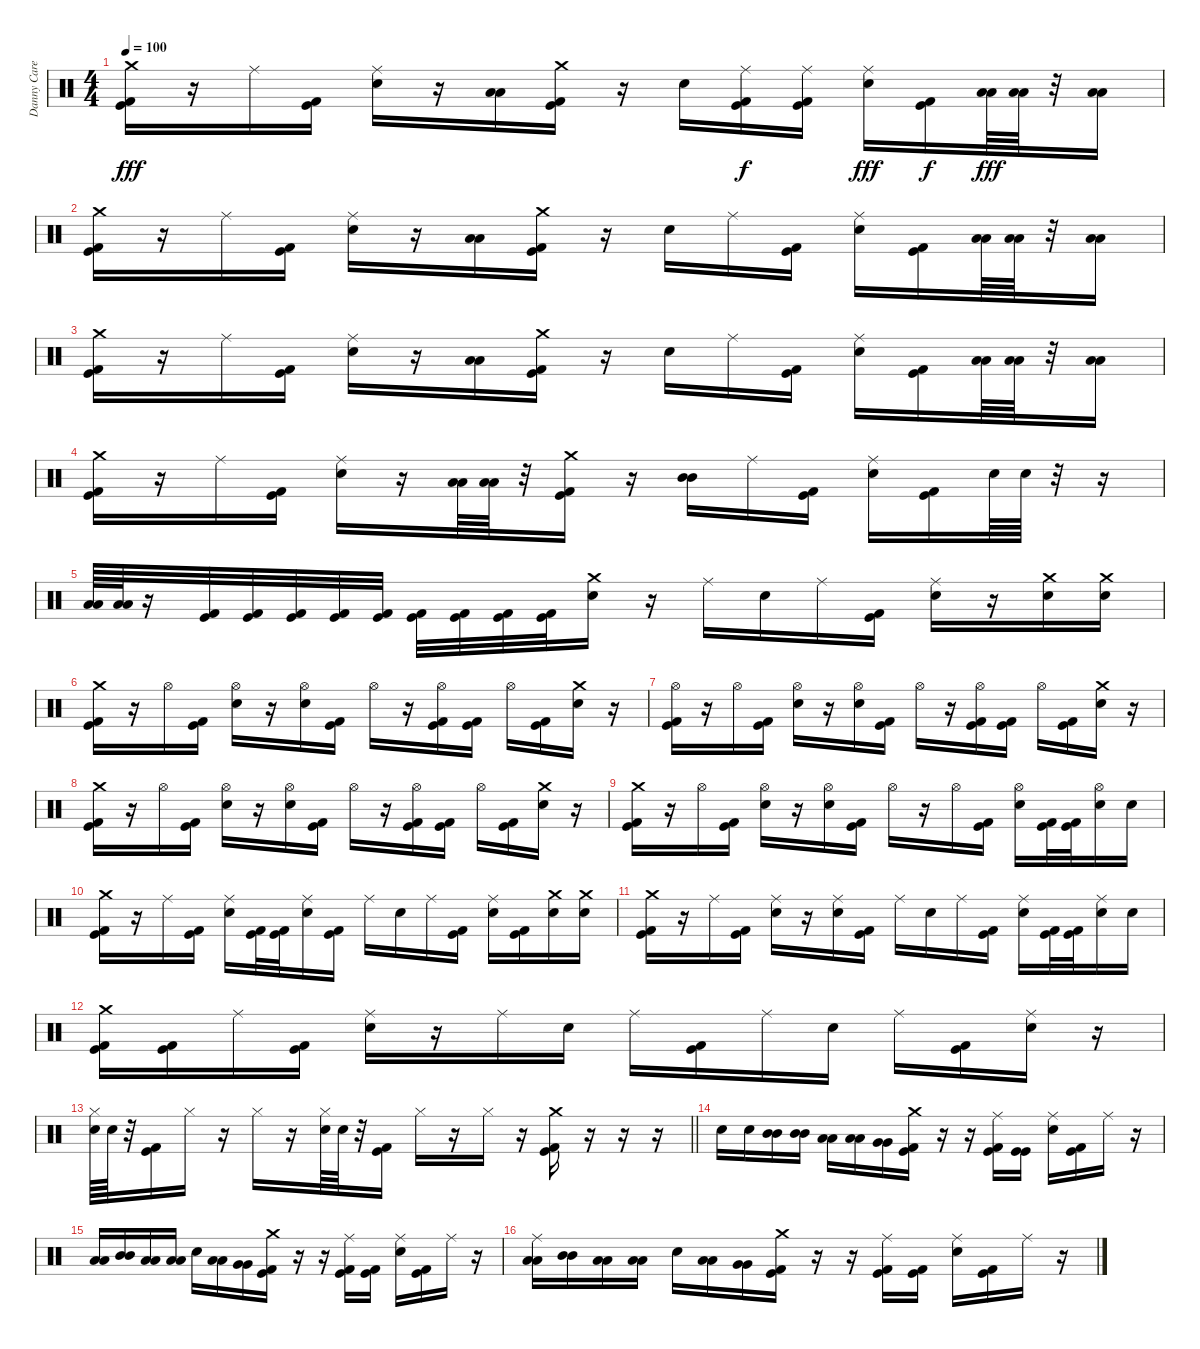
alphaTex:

\track ("Danny Carey" "Danny Care") {instrument percussion}
\staff {score}
\articulation defaults
\ts (4 4)
\tempo 100
\clef neutral
\ks c
("Crash medium (hit)" "Kick (hit)" "Kick (hit) 2").16{dy fff} r.16 "Ride (middle)".16 ("Kick (hit)" "Kick (hit) 2").16 ("Ride (middle)" "Electric Snare (hit)").16 r.16 ("Low Tom (hit)" "Low Tom (hit)").16 ("Crash medium (hit)" "Kick (hit)" "Kick (hit) 2").16 r.16 "Electric Snare (hit)".16 ("Ride (middle)" "Kick (hit)" "Kick (hit) 2").16{dy f} ("Ride (middle)" "Kick (hit)" "Kick (hit) 2").16 ("Ride (middle)" "Electric Snare (hit)").16{dy fff} ("Kick (hit)" "Kick (hit) 2").16{dy f} ("Low Tom (hit)" "Low Tom (hit)").64{dy fff} ("Low Tom (hit)" "Low Tom (hit)").64 r.32 ("Low Tom (hit)" "Low Tom (hit)").16 |
("Crash medium (hit)" "Kick (hit)" "Kick (hit) 2").16 r.16 "Ride (middle)".16 ("Kick (hit)" "Kick (hit) 2").16 ("Ride (middle)" "Electric Snare (hit)").16 r.16 ("Low Tom (hit)" "Low Tom (hit)").16 ("Crash medium (hit)" "Kick (hit)" "Kick (hit) 2").16 r.16 "Electric Snare (hit)".16 "Ride (middle)".16 ("Kick (hit)" "Kick (hit) 2").16 ("Ride (middle)" "Electric Snare (hit)").16 ("Kick (hit)" "Kick (hit) 2").16 ("Low Tom (hit)" "Low Tom (hit)").64 ("Low Tom (hit)" "Low Tom (hit)").64 r.32 ("Low Tom (hit)" "Low Tom (hit)").16 |
("Crash medium (hit)" "Kick (hit)" "Kick (hit) 2").16 r.16 "Ride (middle)".16 ("Kick (hit)" "Kick (hit) 2").16 ("Ride (middle)" "Electric Snare (hit)").16 r.16 ("Low Tom (hit)" "Low Tom (hit)").16 ("Crash medium (hit)" "Kick (hit)" "Kick (hit) 2").16 r.16 "Electric Snare (hit)".16 "Ride (middle)".16 ("Kick (hit)" "Kick (hit) 2").16 ("Ride (middle)" "Electric Snare (hit)").16 ("Kick (hit)" "Kick (hit) 2").16 ("Low Tom (hit)" "Low Tom (hit)").64 ("Low Tom (hit)" "Low Tom (hit)").64 r.32 ("Low Tom (hit)" "Low Tom (hit)").16 |
("Crash medium (hit)" "Kick (hit)" "Kick (hit) 2").16 r.16 "Ride (middle)".16 ("Kick (hit)" "Kick (hit) 2").16 ("Ride (middle)" "Electric Snare (hit)").16 r.16 ("Low Tom (hit)" "Low Tom (hit)").64 ("Low Tom (hit)" "Low Tom (hit)").64 r.32 ("Crash medium (hit)" "Kick (hit)" "Kick (hit) 2").16 r.16 ("Mid Tom (hit)" "Mid Tom (hit)").16 "Ride (middle)".16 ("Kick (hit)" "Kick (hit) 2").16 ("Ride (middle)" "Electric Snare (hit)").16 ("Kick (hit)" "Kick (hit) 2").16 "Electric Snare (hit)".64 "Electric Snare (hit)".64 r.32 r.16 |
("Low Tom (hit)" "Low Tom (hit)").64 ("Low Tom (hit)" "Low Tom (hit)").64 r.16 ("Kick (hit)" "Kick (hit) 2").32 ("Kick (hit)" "Kick (hit) 2").32 ("Kick (hit)" "Kick (hit) 2").32 ("Kick (hit)" "Kick (hit) 2").32 ("Kick (hit)" "Kick (hit) 2").32 ("Kick (hit)" "Kick (hit) 2").32 ("Kick (hit)" "Kick (hit) 2").32 ("Kick (hit)" "Kick (hit) 2").32 ("Kick (hit)" "Kick (hit) 2").32 ("Crash medium (hit)" "Electric Snare (hit)").16 r.16 "Ride (middle)".16 "Electric Snare (hit)".16 "Ride (middle)".16 ("Kick (hit)" "Kick (hit) 2").16 ("Ride (middle)" "Electric Snare (hit)").16 r.16 ("Crash medium (hit)" "Electric Snare (hit)").16 ("Crash medium (hit)" "Electric Snare (hit)").16 |
("Crash medium (hit)" "Kick (hit)" "Kick (hit) 2").16 r.16 "Hi-Hat (open)".16 ("Kick (hit)" "Kick (hit) 2").16 ("Hi-Hat (open)" "Electric Snare (hit)").16 r.16 ("Hi-Hat (open)" "Electric Snare (hit)").16 ("Kick (hit)" "Kick (hit) 2").16 "Hi-Hat (open)".16 r.16 ("Hi-Hat (open)" "Kick (hit)" "Kick (hit) 2").16 ("Kick (hit)" "Kick (hit) 2").16 "Hi-Hat (open)".16 ("Kick (hit)" "Kick (hit) 2").16 ("Crash medium (hit)" "Electric Snare (hit)").16 r.16 |
("Hi-Hat (open)" "Kick (hit)" "Kick (hit) 2").16 r.16 "Hi-Hat (open)".16 ("Kick (hit)" "Kick (hit) 2").16 ("Hi-Hat (open)" "Electric Snare (hit)").16 r.16 ("Hi-Hat (open)" "Electric Snare (hit)").16 ("Kick (hit)" "Kick (hit) 2").16 "Hi-Hat (open)".16 r.16 ("Hi-Hat (open)" "Kick (hit)" "Kick (hit) 2").16 ("Kick (hit)" "Kick (hit) 2").16 "Hi-Hat (open)".16 ("Kick (hit)" "Kick (hit) 2").16 ("Crash medium (hit)" "Electric Snare (hit)").16 r.16 |
("Crash medium (hit)" "Kick (hit)" "Kick (hit) 2").16 r.16 "Hi-Hat (open)".16 ("Kick (hit)" "Kick (hit) 2").16 ("Hi-Hat (open)" "Electric Snare (hit)").16 r.16 ("Hi-Hat (open)" "Electric Snare (hit)").16 ("Kick (hit)" "Kick (hit) 2").16 "Hi-Hat (open)".16 r.16 ("Hi-Hat (open)" "Kick (hit)" "Kick (hit) 2").16 ("Kick (hit)" "Kick (hit) 2").16 "Hi-Hat (open)".16 ("Kick (hit)" "Kick (hit) 2").16 ("Crash medium (hit)" "Electric Snare (hit)").16 r.16 |
("Crash medium (hit)" "Kick (hit)" "Kick (hit) 2").16 r.16 "Hi-Hat (open)".16 ("Kick (hit)" "Kick (hit) 2").16 ("Hi-Hat (open)" "Electric Snare (hit)").16 r.16 ("Hi-Hat (open)" "Electric Snare (hit)").16 ("Kick (hit)" "Kick (hit) 2").16 "Hi-Hat (open)".16 r.16 "Hi-Hat (open)".16 ("Kick (hit)" "Kick (hit) 2").16 ("Hi-Hat (open)" "Electric Snare (hit)").16 ("Kick (hit)" "Kick (hit) 2").32 ("Kick (hit)" "Kick (hit) 2").32 ("Hi-Hat (open)" "Electric Snare (hit)").16 "Electric Snare (hit)".16 |
("Crash medium (hit)" "Kick (hit)" "Kick (hit) 2").16 r.16 "Ride (middle)".16 ("Kick (hit)" "Kick (hit) 2").16 ("Ride (middle)" "Electric Snare (hit)").16 ("Kick (hit)" "Kick (hit) 2").32 ("Kick (hit)" "Kick (hit) 2").32 ("Ride (middle)" "Electric Snare (hit)").16 ("Kick (hit)" "Kick (hit) 2").16 "Ride (middle)".16 "Electric Snare (hit)".16 "Ride (middle)".16 ("Kick (hit)" "Kick (hit) 2").16 ("Ride (middle)" "Electric Snare (hit)").16 ("Kick (hit)" "Kick (hit) 2").16 ("Crash medium (hit)" "Electric Snare (hit)").16 ("Crash medium (hit)" "Electric Snare (hit)").16 |
("Crash medium (hit)" "Kick (hit)" "Kick (hit) 2").16 r.16 "Ride (middle)".16 ("Kick (hit)" "Kick (hit) 2").16 ("Ride (middle)" "Electric Snare (hit)").16 r.16 ("Ride (middle)" "Electric Snare (hit)").16 ("Kick (hit)" "Kick (hit) 2").16 "Ride (middle)".16 "Electric Snare (hit)".16 "Ride (middle)".16 ("Kick (hit)" "Kick (hit) 2").16 ("Ride (middle)" "Electric Snare (hit)").16 ("Kick (hit)" "Kick (hit) 2").32 ("Kick (hit)" "Kick (hit) 2").32 ("Ride (middle)" "Electric Snare (hit)").16 "Electric Snare (hit)".16 |
("Crash medium (hit)" "Kick (hit)" "Kick (hit) 2").16 ("Kick (hit)" "Kick (hit) 2").16 "Ride (middle)".16 ("Kick (hit)" "Kick (hit) 2").16 ("Ride (middle)" "Electric Snare (hit)").16 r.16 "Ride (middle)".16 "Electric Snare (hit)".16 "Ride (middle)".16 ("Kick (hit)" "Kick (hit) 2").16 "Ride (middle)".16 "Electric Snare (hit)".16 "Ride (middle)".16 ("Kick (hit)" "Kick (hit) 2").16 ("Ride (middle)" "Electric Snare (hit)").16 r.16 |
\barLineRight lightlight
("Hi-Hat (closed)" "Electric Snare (hit)").64 "Electric Snare (hit)".64 r.32 ("Kick (hit)" "Kick (hit) 2").16 "Hi-Hat (closed)".16 r.16 "Hi-Hat (closed)".16 r.16 ("Hi-Hat (closed)" "Electric Snare (hit)").64 "Electric Snare (hit)".64 r.32 ("Kick (hit)" "Kick (hit) 2").16 "Hi-Hat (closed)".16 r.16 "Hi-Hat (closed)".16 r.16 ("Crash medium (hit)" "Kick (hit)" "Kick (hit) 2").16 r.16 r.16 r.16 |
"Electric Snare (hit)".16 "Electric Snare (hit)".16 ("Mid Tom (hit)" "Mid Tom (hit)").16 ("Mid Tom (hit)" "Mid Tom (hit)").16 ("Low Tom (hit)" "Low Tom (hit)").16 ("Low Tom (hit)" "Low Tom (hit)").16 ("Very Low Tom (hit)" "Very Low Tom (hit)").16 ("Crash medium (hit)" "Kick (hit)" "Kick (hit) 2").16 r.16 r.16 ("Ride (middle)" "Kick (hit)" "Kick (hit) 2").16 ("Kick (hit)" "Kick (hit)").16 ("Ride (middle)" "Electric Snare (hit)").16 ("Kick (hit)" "Kick (hit) 2").16 "Ride (middle)".16 r.16 |
("Low Tom (hit)" "Low Tom (hit)").16 ("Mid Tom (hit)" "Mid Tom (hit)").16 ("Low Tom (hit)" "Low Tom (hit)").16 ("Low Tom (hit)" "Low Tom (hit)").16 "Electric Snare (hit)".16 ("Low Tom (hit)" "Low Tom (hit)").16 ("Very Low Tom (hit)" "Very Low Tom (hit)").16 ("Crash medium (hit)" "Kick (hit)" "Kick (hit) 2").16 r.16 r.16 ("Ride (middle)" "Kick (hit)" "Kick (hit) 2").16 ("Kick (hit)" "Kick (hit) 2").16 ("Ride (middle)" "Electric Snare (hit)").16 ("Kick (hit)" "Kick (hit) 2").16 "Ride (middle)".16 r.16 |
("Ride (middle)" "Low Tom (hit)" "Low Tom (hit)").16 ("Mid Tom (hit)" "Mid Tom (hit)").16 ("Low Tom (hit)" "Low Tom (hit)").16 ("Low Tom (hit)" "Low Tom (hit)").16 "Electric Snare (hit)".16 ("Low Tom (hit)" "Low Tom (hit)").16 ("Very Low Tom (hit)" "Very Low Tom (hit)").16 ("Crash medium (hit)" "Kick (hit)" "Kick (hit) 2").16 r.16 r.16 ("Ride (middle)" "Kick (hit)" "Kick (hit) 2").16 ("Kick (hit)" "Kick (hit) 2").16 ("Ride (middle)" "Electric Snare (hit)").16 ("Kick (hit)" "Kick (hit) 2").16 "Ride (middle)".16 r.16
